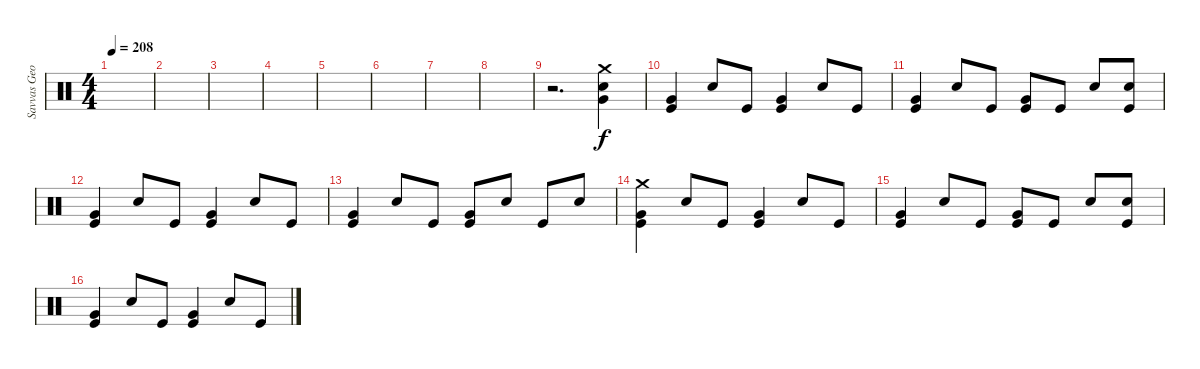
\track ("Savvas Georgiadis" "Savvas Geo") {instrument percussion}
\staff {score}
\articulation defaults
\ts (4 4)
\tempo 208
\clef neutral
\ks c
|
|
|
|
|
|
|
|
r.2{d} ("Crash medium (hit)" "Snare (hit) 2" "Very Low Tom (hit)").4 |
("Very Low Tom (hit)" "Kick (hit)").4 "Snare (hit) 2".8 "Kick (hit)".8 ("Very Low Tom (hit)" "Kick (hit)").4 "Snare (hit) 2".8 "Kick (hit)".8 |
("Very Low Tom (hit)" "Kick (hit)").4 "Snare (hit) 2".8 "Kick (hit)".8 ("Very Low Tom (hit)" "Kick (hit)").8 "Kick (hit)".8 "Snare (hit) 2".8 ("Snare (hit) 2" "Kick (hit)").8 |
("Very Low Tom (hit)" "Kick (hit)").4 "Snare (hit) 2".8 "Kick (hit)".8 ("Very Low Tom (hit)" "Kick (hit)").4 "Snare (hit) 2".8 "Kick (hit)".8 |
("Very Low Tom (hit)" "Kick (hit)").4 "Snare (hit) 2".8 "Kick (hit)".8 ("Very Low Tom (hit)" "Kick (hit)").8 "Snare (hit) 2".8 "Kick (hit)".8 "Snare (hit) 2".8 |
("Crash medium (hit)" "Very Low Tom (hit)" "Kick (hit)").4 "Snare (hit) 2".8 "Kick (hit)".8 ("Very Low Tom (hit)" "Kick (hit)").4 "Snare (hit) 2".8 "Kick (hit)".8 |
("Very Low Tom (hit)" "Kick (hit)").4 "Snare (hit) 2".8 "Kick (hit)".8 ("Very Low Tom (hit)" "Kick (hit)").8 "Kick (hit)".8 "Snare (hit) 2".8 ("Snare (hit) 2" "Kick (hit)").8 |
("Very Low Tom (hit)" "Kick (hit)").4 "Snare (hit) 2".8 "Kick (hit)".8 ("Very Low Tom (hit)" "Kick (hit)").4 "Snare (hit) 2".8 "Kick (hit)".8
